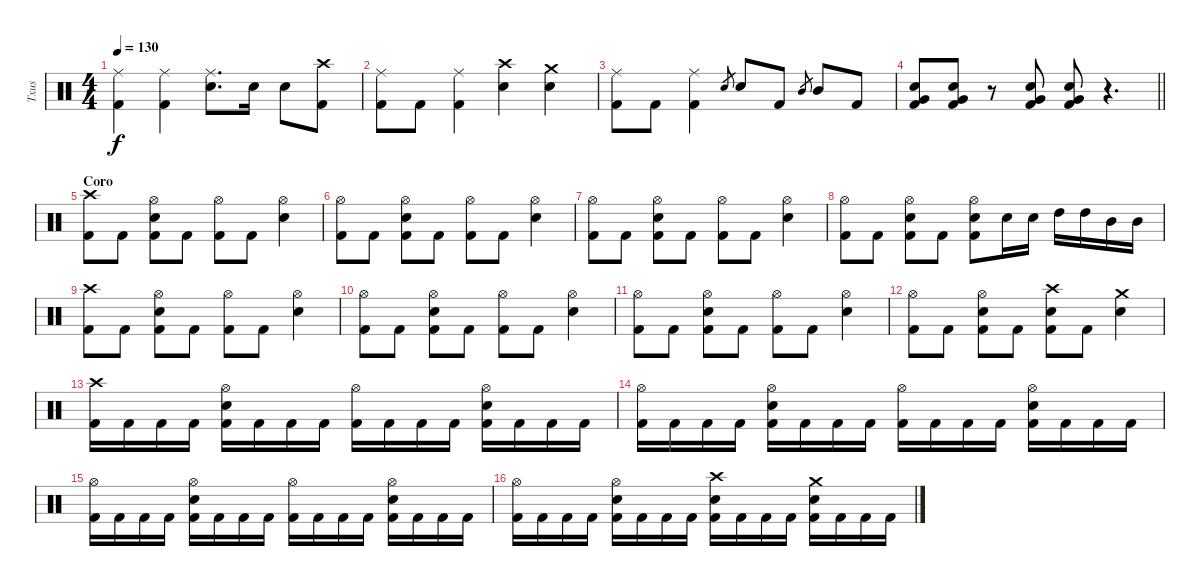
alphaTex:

\track ("Txus" "Txus") {instrument percussion}
\staff {score}
\articulation defaults
\ts (4 4)
\tempo 130
\clef neutral
\ks c
("Ride (middle)" "Kick (hit) 2").4{dy f} ("Ride (middle)" "Kick (hit) 2").4 ("Ride (middle)" "Electric Snare (hit)").8{d} "Electric Snare (hit)".16 "Electric Snare (hit)".8 ("Crash high (hit)" "Kick (hit) 2").8 |
("Ride (middle)" "Kick (hit) 2").8 "Kick (hit) 2".8 ("Ride (middle)" "Kick (hit) 2").4 ("Crash high (hit)" "Electric Snare (hit)").4 ("Crash medium (hit)" "Electric Snare (hit)").4 |
("Ride (middle)" "Kick (hit) 2").8 "Kick (hit) 2".8 ("Ride (middle)" "Kick (hit) 2").4 "Electric Snare (hit)".8{gr} "Electric Snare (hit)".8 "Kick (hit) 2".8 "Mid Tom (hit)".8{gr} "Mid Tom (hit)".8 "Kick (hit) 2".8 |
\barLineRight lightlight
("Electric Snare (hit)" "Very Low Tom (hit)" "Kick (hit) 2").8 ("Electric Snare (hit)" "Very Low Tom (hit)" "Kick (hit) 2").8 r.8 ("Electric Snare (hit)" "Very Low Tom (hit)" "Kick (hit) 2").8 ("Electric Snare (hit)" "Very Low Tom (hit)" "Kick (hit) 2").8 r.4{d} |
\section ("" "Coro")
("Crash high (hit)" "Kick (hit) 2").8 "Kick (hit) 2".8 ("Hi-Hat (open)" "Electric Snare (hit)" "Kick (hit) 2").8 "Kick (hit) 2".8 ("Hi-Hat (open)" "Kick (hit) 2").8 "Kick (hit) 2".8 ("Hi-Hat (open)" "Electric Snare (hit)").4 |
("Hi-Hat (open)" "Kick (hit) 2").8 "Kick (hit) 2".8 ("Hi-Hat (open)" "Electric Snare (hit)" "Kick (hit) 2").8 "Kick (hit) 2".8 ("Hi-Hat (open)" "Kick (hit) 2").8 "Kick (hit) 2".8 ("Hi-Hat (open)" "Electric Snare (hit)").4 |
("Hi-Hat (open)" "Kick (hit) 2").8 "Kick (hit) 2".8 ("Hi-Hat (open)" "Electric Snare (hit)" "Kick (hit) 2").8 "Kick (hit) 2".8 ("Hi-Hat (open)" "Kick (hit) 2").8 "Kick (hit) 2".8 ("Hi-Hat (open)" "Electric Snare (hit)").4 |
("Hi-Hat (open)" "Kick (hit) 2").8 "Kick (hit) 2".8 ("Hi-Hat (open)" "Electric Snare (hit)" "Kick (hit) 2").8 "Kick (hit) 2".8 ("Hi-Hat (open)" "Electric Snare (hit)" "Kick (hit) 2").8 "Electric Snare (hit)".16 "Electric Snare (hit)".16 "High Tom (hit)".16 "High Tom (hit)".16 "Mid Tom (hit)".16 "Mid Tom (hit)".16 |
("Crash high (hit)" "Kick (hit) 2").8 "Kick (hit) 2".8 ("Hi-Hat (open)" "Electric Snare (hit)" "Kick (hit) 2").8 "Kick (hit) 2".8 ("Hi-Hat (open)" "Kick (hit) 2").8 "Kick (hit) 2".8 ("Hi-Hat (open)" "Electric Snare (hit)").4 |
("Hi-Hat (open)" "Kick (hit) 2").8 "Kick (hit) 2".8 ("Hi-Hat (open)" "Electric Snare (hit)" "Kick (hit) 2").8 "Kick (hit) 2".8 ("Hi-Hat (open)" "Kick (hit) 2").8 "Kick (hit) 2".8 ("Hi-Hat (open)" "Electric Snare (hit)").4 |
("Hi-Hat (open)" "Kick (hit) 2").8 "Kick (hit) 2".8 ("Hi-Hat (open)" "Electric Snare (hit)" "Kick (hit) 2").8 "Kick (hit) 2".8 ("Hi-Hat (open)" "Kick (hit) 2").8 "Kick (hit) 2".8 ("Hi-Hat (open)" "Electric Snare (hit)").4 |
("Hi-Hat (open)" "Kick (hit) 2").8 "Kick (hit) 2".8 ("Hi-Hat (open)" "Electric Snare (hit)" "Kick (hit) 2").8 "Kick (hit) 2".8 ("Crash high (hit)" "Electric Snare (hit)" "Kick (hit) 2").8 "Kick (hit) 2".8 ("Crash medium (hit)" "Electric Snare (hit)").4 |
("Crash high (hit)" "Kick (hit) 2").16 "Kick (hit) 2".16 "Kick (hit) 2".16 "Kick (hit) 2".16 ("Hi-Hat (open)" "Electric Snare (hit)" "Kick (hit) 2").16 "Kick (hit) 2".16 "Kick (hit) 2".16 "Kick (hit) 2".16 ("Hi-Hat (open)" "Kick (hit) 2").16 "Kick (hit) 2".16 "Kick (hit) 2".16 "Kick (hit) 2".16 ("Hi-Hat (open)" "Electric Snare (hit)" "Kick (hit) 2").16 "Kick (hit) 2".16 "Kick (hit) 2".16 "Kick (hit) 2".16 |
("Hi-Hat (open)" "Kick (hit) 2").16 "Kick (hit) 2".16 "Kick (hit) 2".16 "Kick (hit) 2".16 ("Hi-Hat (open)" "Electric Snare (hit)" "Kick (hit) 2").16 "Kick (hit) 2".16 "Kick (hit) 2".16 "Kick (hit) 2".16 ("Hi-Hat (open)" "Kick (hit) 2").16 "Kick (hit) 2".16 "Kick (hit) 2".16 "Kick (hit) 2".16 ("Hi-Hat (open)" "Electric Snare (hit)" "Kick (hit) 2").16 "Kick (hit) 2".16 "Kick (hit) 2".16 "Kick (hit) 2".16 |
("Hi-Hat (open)" "Kick (hit) 2").16 "Kick (hit) 2".16 "Kick (hit) 2".16 "Kick (hit) 2".16 ("Hi-Hat (open)" "Electric Snare (hit)" "Kick (hit) 2").16 "Kick (hit) 2".16 "Kick (hit) 2".16 "Kick (hit) 2".16 ("Hi-Hat (open)" "Kick (hit) 2").16 "Kick (hit) 2".16 "Kick (hit) 2".16 "Kick (hit) 2".16 ("Hi-Hat (open)" "Electric Snare (hit)" "Kick (hit) 2").16 "Kick (hit) 2".16 "Kick (hit) 2".16 "Kick (hit) 2".16 |
("Hi-Hat (open)" "Kick (hit) 2").16 "Kick (hit) 2".16 "Kick (hit) 2".16 "Kick (hit) 2".16 ("Hi-Hat (open)" "Electric Snare (hit)" "Kick (hit) 2").16 "Kick (hit) 2".16 "Kick (hit) 2".16 "Kick (hit) 2".16 ("Crash high (hit)" "Electric Snare (hit)" "Kick (hit) 2").16 "Kick (hit) 2".16 "Kick (hit) 2".16 "Kick (hit) 2".16 ("Crash medium (hit)" "Electric Snare (hit)" "Kick (hit) 2").16 "Kick (hit) 2".16 "Kick (hit) 2".16 "Kick (hit) 2".16
